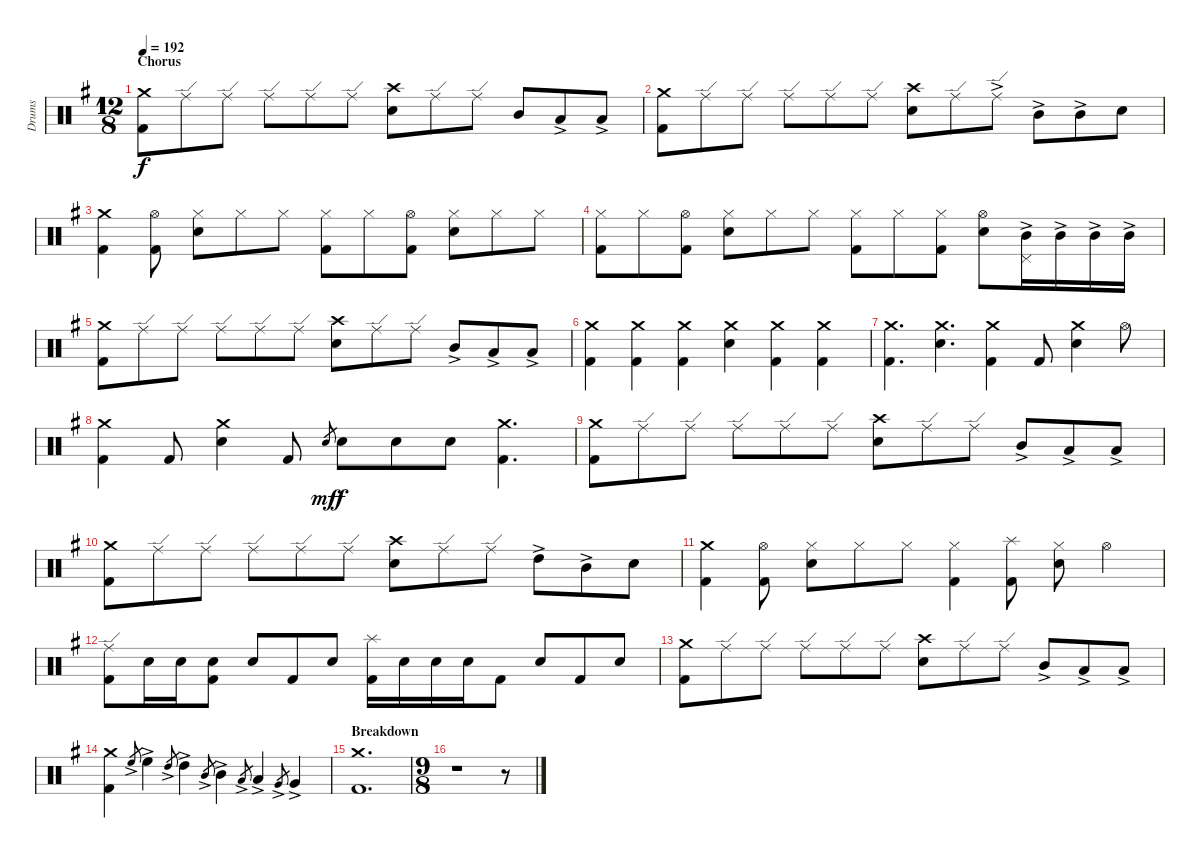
\defaultSystemsLayout 4
\bracketExtendMode groupsimilarinstruments
\otherSystemsTrackNameOrientation horizontal
\track ("Drumkit" "Drums") {multiBarRest instrument percussion}
\staff {score}
\articulation defaults
\ts (12 8)
\section ("" "Chorus")
\tempo 192
\clef neutral
\ks g
("Crash medium (hit)"{acc forcenatural} "Kick (hit) 2"{acc forcenatural}).8{dy f} "Ride (edge)"{acc forcenatural}.8 "Ride (edge)"{acc forcenatural}.8 "Ride (edge)"{acc forcenatural}.8 "Ride (edge)"{acc forcenatural}.8 "Ride (edge)"{acc forcenatural}.8 ("Snare (hit) 2"{acc forcenatural} "Crash high (hit)"{acc forcenatural}).8 "Ride (edge)"{acc forcenatural}.8 "Ride (edge)"{acc forcenatural}.8 "Mid Tom (hit)"{acc forcenatural}.8 "Low Tom (hit)"{ac acc forcenatural}.8 "Low Tom (hit)"{ac acc forcenatural}.8 |
("Crash medium (hit)"{acc forcenatural} "Kick (hit) 2"{acc forcenatural}).8 "Ride (edge)"{acc forcenatural}.8 "Ride (edge)"{acc forcenatural}.8 "Ride (edge)"{acc forcenatural}.8 "Ride (edge)"{acc forcenatural}.8 "Ride (edge)"{acc forcenatural}.8 ("Snare (hit) 2"{acc forcenatural} "Crash high (hit)"{acc forcenatural}).8 "Ride (edge)"{acc forcenatural}.8 "Ride (edge)"{ac acc forcenatural}.8 "Mid Tom (hit)"{ac acc forcenatural}.8 "Mid Tom (hit)"{ac acc forcenatural}.8 "Snare (hit) 2"{acc forcenatural}.8 |
("Crash medium (hit)"{acc forcenatural} "Kick (hit) 2"{acc forcenatural}).4 ("Hi-Hat (open)"{acc forcenatural} "Kick (hit) 2"{acc forcenatural}).8 ("Hi-Hat (closed)"{acc forcenatural} "Snare (hit) 2"{acc forcenatural}).8 "Hi-Hat (closed)"{acc forcenatural}.8 "Hi-Hat (closed)"{acc forcenatural}.8 ("Hi-Hat (closed)"{acc forcenatural} "Kick (hit) 2"{acc forcenatural}).8 "Hi-Hat (closed)"{acc forcenatural}.8 ("Hi-Hat (open)"{acc forcenatural} "Kick (hit) 2"{acc forcenatural}).8 ("Hi-Hat (closed)"{acc forcenatural} "Snare (hit) 2"{acc forcenatural}).8 "Hi-Hat (closed)"{acc forcenatural}.8 "Hi-Hat (closed)"{acc forcenatural}.8 |
("Hi-Hat (closed)"{acc forcenatural} "Kick (hit) 2"{acc forcenatural}).8 "Hi-Hat (closed)"{acc forcenatural}.8 ("Hi-Hat (open)"{acc forcenatural} "Kick (hit) 2"{acc forcenatural}).8 ("Hi-Hat (closed)"{acc forcenatural} "Snare (hit) 2"{acc forcenatural}).8 "Hi-Hat (closed)"{acc forcenatural}.8 "Hi-Hat (closed)"{acc forcenatural}.8 ("Hi-Hat (closed)"{acc forcenatural} "Kick (hit) 2"{acc forcenatural}).8 "Hi-Hat (closed)"{acc forcenatural}.8 ("Hi-Hat (closed)"{acc forcenatural} "Kick (hit) 2"{acc forcenatural}).8 ("Hi-Hat (open)"{acc forcenatural} "Snare (hit) 2"{acc forcenatural}).8 ("Mid Tom (hit)"{ac acc forcenatural} "Pedal Hi-Hat (hit)"{acc forcenatural}).16 "Mid Tom (hit)"{ac acc forcenatural}.16 "Mid Tom (hit)"{ac acc forcenatural}.16 "Mid Tom (hit)"{ac acc forcenatural}.16 |
("Crash medium (hit)"{acc forcenatural} "Kick (hit) 2"{acc forcenatural}).8 "Ride (edge)"{acc forcenatural}.8 "Ride (edge)"{acc forcenatural}.8 "Ride (edge)"{acc forcenatural}.8 "Ride (edge)"{acc forcenatural}.8 "Ride (edge)"{acc forcenatural}.8 ("Snare (hit) 2"{acc forcenatural} "Crash high (hit)"{acc forcenatural}).8 "Ride (edge)"{acc forcenatural}.8 "Ride (edge)"{acc forcenatural}.8 "Mid Tom (hit)"{ac acc forcenatural}.8 "Low Tom (hit)"{ac acc forcenatural}.8 "Low Tom (hit)"{ac acc forcenatural}.8 |
("Crash medium (hit)"{acc forcenatural} "Kick (hit) 2"{acc forcenatural}).4 ("Crash medium (hit)"{acc forcenatural} "Kick (hit) 2"{acc forcenatural}).4 ("Crash medium (hit)"{acc forcenatural} "Kick (hit) 2"{acc forcenatural}).4 ("Crash medium (hit)"{acc forcenatural} "Snare (hit) 2"{acc forcenatural}).4 ("Crash medium (hit)"{acc forcenatural} "Kick (hit) 2"{acc forcenatural}).4 ("Crash medium (hit)"{acc forcenatural} "Kick (hit) 2"{acc forcenatural}).4 |
("Crash medium (hit)"{acc forcenatural} "Kick (hit) 2"{acc forcenatural}).4{d} ("Crash medium (hit)"{acc forcenatural} "Snare (hit) 2"{acc forcenatural}).4{d} ("Crash medium (hit)"{acc forcenatural} "Kick (hit) 2"{acc forcenatural}).4 "Kick (hit) 2"{acc forcenatural}.8 ("Crash medium (hit)"{acc forcenatural} "Snare (hit) 2"{acc forcenatural}).4 "Hi-Hat (open)"{acc forcenatural}.8 |
("Crash medium (hit)"{acc forcenatural} "Kick (hit) 2"{acc forcenatural}).4 "Kick (hit) 2"{acc forcenatural}.8 ("Crash medium (hit)"{acc forcenatural} "Snare (hit) 2"{acc forcenatural}).4 "Kick (hit) 2"{acc forcenatural}.8 "Snare (hit) 2"{acc forcenatural}.8{gr dy mf} "Snare (hit) 2"{acc forcenatural}.8{dy f} "Snare (hit) 2"{acc forcenatural}.8 "Snare (hit) 2"{acc forcenatural}.8 ("Crash medium (hit)"{acc forcenatural} "Kick (hit) 2"{acc forcenatural}).4{d} |
("Crash medium (hit)"{acc forcenatural} "Kick (hit) 2"{acc forcenatural}).8 "Ride (edge)"{acc forcenatural}.8 "Ride (edge)"{acc forcenatural}.8 "Ride (edge)"{acc forcenatural}.8 "Ride (edge)"{acc forcenatural}.8 "Ride (edge)"{acc forcenatural}.8 ("Snare (hit) 2"{acc forcenatural} "Crash high (hit)"{acc forcenatural}).8 "Ride (edge)"{acc forcenatural}.8 "Ride (edge)"{acc forcenatural}.8 "Mid Tom (hit)"{ac acc forcenatural}.8 "Low Tom (hit)"{ac acc forcenatural}.8 "Low Tom (hit)"{ac acc forcenatural}.8 |
("Crash medium (hit)"{acc forcenatural} "Kick (hit) 2"{acc forcenatural}).8 "Ride (edge)"{acc forcenatural}.8 "Ride (edge)"{acc forcenatural}.8 "Ride (edge)"{acc forcenatural}.8 "Ride (edge)"{acc forcenatural}.8 "Ride (edge)"{acc forcenatural}.8 ("Snare (hit) 2"{acc forcenatural} "Crash high (hit)"{acc forcenatural}).8 "Ride (edge)"{acc forcenatural}.8 "Ride (edge)"{acc forcenatural}.8 "High Tom (hit)"{ac acc forcenatural}.8 "Mid Tom (hit)"{ac acc forcenatural}.8 "Snare (hit) 2"{acc forcenatural}.8 |
("Crash medium (hit)"{acc forcenatural} "Kick (hit) 2"{acc forcenatural}).4 ("Hi-Hat (open)"{acc forcenatural} "Kick (hit) 2"{acc forcenatural}).8 ("Hi-Hat (closed)"{acc forcenatural} "Snare (hit) 2"{acc forcenatural}).8 "Hi-Hat (closed)"{acc forcenatural}.8 "Hi-Hat (closed)"{acc forcenatural}.8 ("Hi-Hat (closed)"{acc forcenatural} "Kick (hit) 2"{acc forcenatural}).4 ("Kick (hit) 2"{acc forcenatural} "Splash (hit)"{acc forcenatural}).8 ("Hi-Hat (closed)"{acc forcenatural} "Snare (hit) 2"{acc forcenatural}).8 "Hi-Hat (open)"{acc forcenatural}.4 |
("Kick (hit) 2"{acc forcenatural} "Ride (edge)"{acc forcenatural}).8 "Snare (hit) 2"{acc forcenatural}.16 "Snare (hit) 2"{acc forcenatural}.16 ("Kick (hit) 2"{acc forcenatural} "Snare (hit) 2"{acc forcenatural}).8 "Snare (hit) 2"{acc forcenatural}.8 "Kick (hit) 2"{acc forcenatural}.8 "Snare (hit) 2"{acc forcenatural}.8 ("Splash (hit)"{acc forcenatural} "Kick (hit) 2"{acc forcenatural}).16 "Snare (hit) 2"{acc forcenatural}.16 "Snare (hit) 2"{acc forcenatural}.16 "Snare (hit) 2"{acc forcenatural}.16 "Kick (hit) 2"{acc forcenatural}.8 "Snare (hit) 2"{acc forcenatural}.8 "Kick (hit) 2"{acc forcenatural}.8 "Snare (hit) 2"{acc forcenatural}.8 |
("Crash medium (hit)"{acc forcenatural} "Kick (hit) 2"{acc forcenatural}).8 "Ride (edge)"{acc forcenatural}.8 "Ride (edge)"{acc forcenatural}.8 "Ride (edge)"{acc forcenatural}.8 "Ride (edge)"{acc forcenatural}.8 "Ride (edge)"{acc forcenatural}.8 ("Snare (hit) 2"{acc forcenatural} "Crash high (hit)"{acc forcenatural}).8 "Ride (edge)"{acc forcenatural}.8 "Ride (edge)"{acc forcenatural}.8 "Mid Tom (hit)"{ac acc forcenatural}.8 "Low Tom (hit)"{ac acc forcenatural}.8 "Low Tom (hit)"{ac acc forcenatural}.8 |
("Crash medium (hit)"{acc forcenatural} "Kick (hit) 2"{acc forcenatural}).4 "High Floor Tom (hit)"{ac acc forcenatural}.8{gr} "High Floor Tom (hit)"{ac acc forcenatural}.4 "High Tom (hit)"{ac acc forcenatural}.8{gr} "High Tom (hit)"{ac acc forcenatural}.4 "Mid Tom (hit)"{ac acc forcenatural}.8{gr} "Mid Tom (hit)"{ac acc forcenatural}.4 "Low Tom (hit)"{ac acc forcenatural}.8{gr} "Low Tom (hit)"{ac acc forcenatural}.4 "Very Low Tom (hit)"{ac acc forcenatural}.8{gr} "Very Low Tom (hit)"{ac acc forcenatural}.4 |
\section ("" "Breakdown")
("Crash medium (hit)"{acc forcenatural} "Kick (hit) 2"{acc forcenatural}).1{d} |
\ts (9 8)
\beaming (8 3 3 3 3)
r.1 r.8
